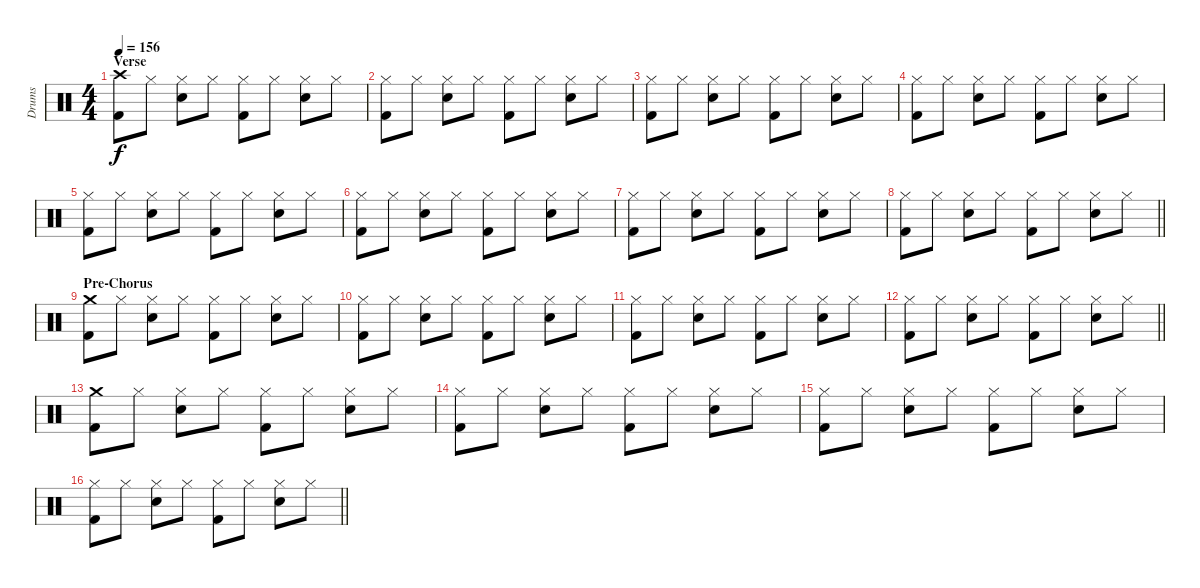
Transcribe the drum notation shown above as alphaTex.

\track ("Drums" "Drums") {instrument percussion}
\staff {score}
\articulation defaults
\ts (4 4)
\section ("" "Verse")
\tempo 156
\clef neutral
\ks c
("Crash high (hit)" "Kick (hit) 2").8{dy f} "Hi-Hat (closed)".8 ("Hi-Hat (closed)" "Electric Snare (hit)").8 "Hi-Hat (closed)".8 ("Hi-Hat (closed)" "Kick (hit) 2").8 "Hi-Hat (closed)".8 ("Hi-Hat (closed)" "Electric Snare (hit)").8 "Hi-Hat (closed)".8 |
("Hi-Hat (closed)" "Kick (hit) 2").8 "Hi-Hat (closed)".8 ("Hi-Hat (closed)" "Electric Snare (hit)").8 "Hi-Hat (closed)".8 ("Hi-Hat (closed)" "Kick (hit) 2").8 "Hi-Hat (closed)".8 ("Hi-Hat (closed)" "Electric Snare (hit)").8 "Hi-Hat (closed)".8 |
("Hi-Hat (closed)" "Kick (hit) 2").8 "Hi-Hat (closed)".8 ("Hi-Hat (closed)" "Electric Snare (hit)").8 "Hi-Hat (closed)".8 ("Hi-Hat (closed)" "Kick (hit) 2").8 "Hi-Hat (closed)".8 ("Hi-Hat (closed)" "Electric Snare (hit)").8 "Hi-Hat (closed)".8 |
("Hi-Hat (closed)" "Kick (hit) 2").8 "Hi-Hat (closed)".8 ("Hi-Hat (closed)" "Electric Snare (hit)").8 "Hi-Hat (closed)".8 ("Hi-Hat (closed)" "Kick (hit) 2").8 "Hi-Hat (closed)".8 ("Hi-Hat (closed)" "Electric Snare (hit)").8 "Hi-Hat (closed)".8 |
("Hi-Hat (closed)" "Kick (hit) 2").8 "Hi-Hat (closed)".8 ("Hi-Hat (closed)" "Electric Snare (hit)").8 "Hi-Hat (closed)".8 ("Hi-Hat (closed)" "Kick (hit) 2").8 "Hi-Hat (closed)".8 ("Hi-Hat (closed)" "Electric Snare (hit)").8 "Hi-Hat (closed)".8 |
("Hi-Hat (closed)" "Kick (hit) 2").8 "Hi-Hat (closed)".8 ("Hi-Hat (closed)" "Electric Snare (hit)").8 "Hi-Hat (closed)".8 ("Hi-Hat (closed)" "Kick (hit) 2").8 "Hi-Hat (closed)".8 ("Hi-Hat (closed)" "Electric Snare (hit)").8 "Hi-Hat (closed)".8 |
("Hi-Hat (closed)" "Kick (hit) 2").8 "Hi-Hat (closed)".8 ("Hi-Hat (closed)" "Electric Snare (hit)").8 "Hi-Hat (closed)".8 ("Hi-Hat (closed)" "Kick (hit) 2").8 "Hi-Hat (closed)".8 ("Hi-Hat (closed)" "Electric Snare (hit)").8 "Hi-Hat (closed)".8 |
\barLineRight lightlight
("Hi-Hat (closed)" "Kick (hit) 2").8 "Hi-Hat (closed)".8 ("Hi-Hat (closed)" "Electric Snare (hit)").8 "Hi-Hat (closed)".8 ("Hi-Hat (closed)" "Kick (hit) 2").8 "Hi-Hat (closed)".8 ("Hi-Hat (closed)" "Electric Snare (hit)").8 "Hi-Hat (closed)".8 |
\section ("" "Pre-Chorus")
("Crash medium (hit)" "Kick (hit) 2").8 "Hi-Hat (closed)".8 ("Hi-Hat (closed)" "Electric Snare (hit)").8 "Hi-Hat (closed)".8 ("Hi-Hat (closed)" "Kick (hit) 2").8 "Hi-Hat (closed)".8 ("Hi-Hat (closed)" "Electric Snare (hit)").8 "Hi-Hat (closed)".8 |
("Hi-Hat (closed)" "Kick (hit) 2").8 "Hi-Hat (closed)".8 ("Hi-Hat (closed)" "Electric Snare (hit)").8 "Hi-Hat (closed)".8 ("Hi-Hat (closed)" "Kick (hit) 2").8 "Hi-Hat (closed)".8 ("Hi-Hat (closed)" "Electric Snare (hit)").8 "Hi-Hat (closed)".8 |
("Hi-Hat (closed)" "Kick (hit) 2").8 "Hi-Hat (closed)".8 ("Hi-Hat (closed)" "Electric Snare (hit)").8 "Hi-Hat (closed)".8 ("Hi-Hat (closed)" "Kick (hit) 2").8 "Hi-Hat (closed)".8 ("Hi-Hat (closed)" "Electric Snare (hit)").8 "Hi-Hat (closed)".8 |
\barLineRight lightlight
("Hi-Hat (closed)" "Kick (hit) 2").8 "Hi-Hat (closed)".8 ("Hi-Hat (closed)" "Electric Snare (hit)").8 "Hi-Hat (closed)".8 ("Hi-Hat (closed)" "Kick (hit) 2").8 "Hi-Hat (closed)".8 ("Hi-Hat (closed)" "Electric Snare (hit)").8 "Hi-Hat (closed)".8 |
("Crash medium (hit)" "Kick (hit) 2").8 "Hi-Hat (closed)".8 ("Hi-Hat (closed)" "Electric Snare (hit)").8 "Hi-Hat (closed)".8 ("Hi-Hat (closed)" "Kick (hit) 2").8 "Hi-Hat (closed)".8 ("Hi-Hat (closed)" "Electric Snare (hit)").8 "Hi-Hat (closed)".8 |
("Hi-Hat (closed)" "Kick (hit) 2").8 "Hi-Hat (closed)".8 ("Hi-Hat (closed)" "Electric Snare (hit)").8 "Hi-Hat (closed)".8 ("Hi-Hat (closed)" "Kick (hit) 2").8 "Hi-Hat (closed)".8 ("Hi-Hat (closed)" "Electric Snare (hit)").8 "Hi-Hat (closed)".8 |
("Hi-Hat (closed)" "Kick (hit) 2").8 "Hi-Hat (closed)".8 ("Hi-Hat (closed)" "Electric Snare (hit)").8 "Hi-Hat (closed)".8 ("Hi-Hat (closed)" "Kick (hit) 2").8 "Hi-Hat (closed)".8 ("Hi-Hat (closed)" "Electric Snare (hit)").8 "Hi-Hat (closed)".8 |
\barLineRight lightlight
("Hi-Hat (closed)" "Kick (hit) 2").8 "Hi-Hat (closed)".8 ("Hi-Hat (closed)" "Electric Snare (hit)").8 "Hi-Hat (closed)".8 ("Hi-Hat (closed)" "Kick (hit) 2").8 "Hi-Hat (closed)".8 ("Hi-Hat (closed)" "Electric Snare (hit)").8 "Hi-Hat (closed)".8
